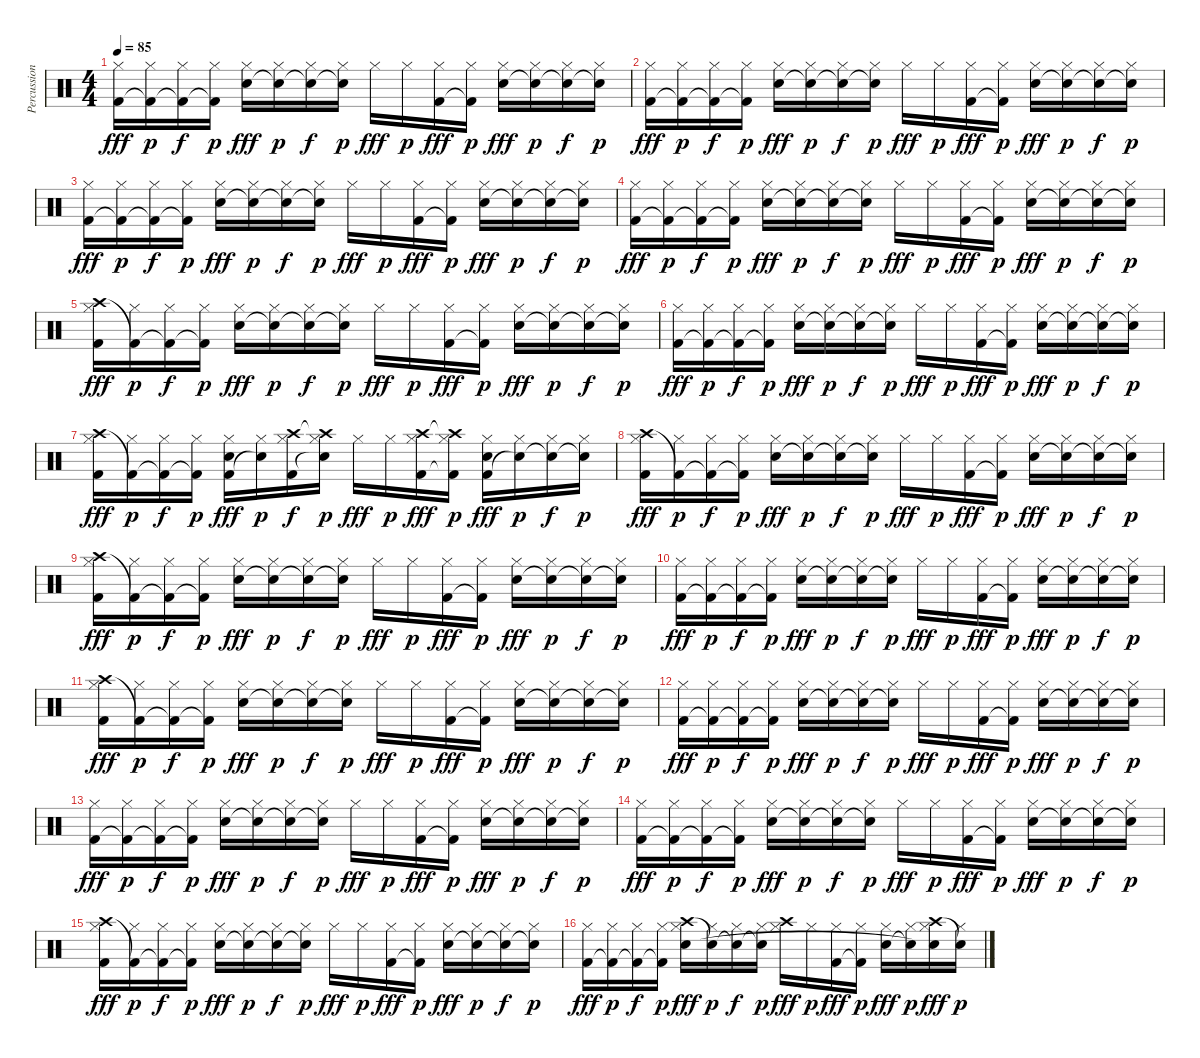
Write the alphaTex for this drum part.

\track ("Percussion" "Percussion") {instrument percussion}
\staff {score}
\articulation defaults
\ts (4 4)
\tempo 85
\clef neutral
\ks c
("Hi-Hat (closed)" "Kick (hit) 2").16{dy fff} ("Hi-Hat (closed)" "Kick (hit) 2"{t}).16{dy p} ("Hi-Hat (closed)" "Kick (hit) 2"{t}).16{dy f} ("Hi-Hat (closed)" "Kick (hit) 2"{t}).16{dy p} ("Hi-Hat (closed)" "Snare (hit) 2").16{dy fff} ("Hi-Hat (closed)" "Snare (hit) 2"{t}).16{dy p} ("Hi-Hat (closed)" "Snare (hit) 2"{t}).16{dy f} ("Hi-Hat (closed)" "Snare (hit) 2"{t}).16{dy p} "Hi-Hat (closed)".16{dy fff} "Hi-Hat (closed)".16{dy p} ("Hi-Hat (closed)" "Kick (hit) 2").16{dy fff} ("Hi-Hat (closed)" "Kick (hit) 2"{t}).16{dy p} ("Hi-Hat (closed)" "Snare (hit) 2").16{dy fff} ("Hi-Hat (closed)" "Snare (hit) 2"{t}).16{dy p} ("Hi-Hat (closed)" "Snare (hit) 2"{t}).16{dy f} ("Hi-Hat (closed)" "Snare (hit) 2"{t}).16{dy p} |
("Hi-Hat (closed)" "Kick (hit) 2").16{dy fff} ("Hi-Hat (closed)" "Kick (hit) 2"{t}).16{dy p} ("Hi-Hat (closed)" "Kick (hit) 2"{t}).16{dy f} ("Hi-Hat (closed)" "Kick (hit) 2"{t}).16{dy p} ("Hi-Hat (closed)" "Snare (hit) 2").16{dy fff} ("Hi-Hat (closed)" "Snare (hit) 2"{t}).16{dy p} ("Hi-Hat (closed)" "Snare (hit) 2"{t}).16{dy f} ("Hi-Hat (closed)" "Snare (hit) 2"{t}).16{dy p} "Hi-Hat (closed)".16{dy fff} "Hi-Hat (closed)".16{dy p} ("Hi-Hat (closed)" "Kick (hit) 2").16{dy fff} ("Hi-Hat (closed)" "Kick (hit) 2"{t}).16{dy p} ("Hi-Hat (closed)" "Snare (hit) 2").16{dy fff} ("Hi-Hat (closed)" "Snare (hit) 2"{t}).16{dy p} ("Hi-Hat (closed)" "Snare (hit) 2"{t}).16{dy f} ("Hi-Hat (closed)" "Snare (hit) 2"{t}).16{dy p} |
("Hi-Hat (closed)" "Kick (hit) 2").16{dy fff} ("Hi-Hat (closed)" "Kick (hit) 2"{t}).16{dy p} ("Hi-Hat (closed)" "Kick (hit) 2"{t}).16{dy f} ("Hi-Hat (closed)" "Kick (hit) 2"{t}).16{dy p} ("Hi-Hat (closed)" "Snare (hit) 2").16{dy fff} ("Hi-Hat (closed)" "Snare (hit) 2"{t}).16{dy p} ("Hi-Hat (closed)" "Snare (hit) 2"{t}).16{dy f} ("Hi-Hat (closed)" "Snare (hit) 2"{t}).16{dy p} "Hi-Hat (closed)".16{dy fff} "Hi-Hat (closed)".16{dy p} ("Hi-Hat (closed)" "Kick (hit) 2").16{dy fff} ("Hi-Hat (closed)" "Kick (hit) 2"{t}).16{dy p} ("Hi-Hat (closed)" "Snare (hit) 2").16{dy fff} ("Hi-Hat (closed)" "Snare (hit) 2"{t}).16{dy p} ("Hi-Hat (closed)" "Snare (hit) 2"{t}).16{dy f} ("Hi-Hat (closed)" "Snare (hit) 2"{t}).16{dy p} |
("Hi-Hat (closed)" "Kick (hit) 2").16{dy fff} ("Hi-Hat (closed)" "Kick (hit) 2"{t}).16{dy p} ("Hi-Hat (closed)" "Kick (hit) 2"{t}).16{dy f} ("Hi-Hat (closed)" "Kick (hit) 2"{t}).16{dy p} ("Hi-Hat (closed)" "Snare (hit) 2").16{dy fff} ("Hi-Hat (closed)" "Snare (hit) 2"{t}).16{dy p} ("Hi-Hat (closed)" "Snare (hit) 2"{t}).16{dy f} ("Hi-Hat (closed)" "Snare (hit) 2"{t}).16{dy p} "Hi-Hat (closed)".16{dy fff} "Hi-Hat (closed)".16{dy p} ("Hi-Hat (closed)" "Kick (hit) 2").16{dy fff} ("Hi-Hat (closed)" "Kick (hit) 2"{t}).16{dy p} ("Hi-Hat (closed)" "Snare (hit) 2").16{dy fff} ("Hi-Hat (closed)" "Snare (hit) 2"{t}).16{dy p} ("Hi-Hat (closed)" "Snare (hit) 2"{t}).16{dy f} ("Hi-Hat (closed)" "Snare (hit) 2"{t}).16{dy p} |
("Hi-Hat (closed)" "Crash high (hit)" "Kick (hit) 2").16{dy fff} ("Hi-Hat (closed)" "Kick (hit) 2"{t}).16{dy p} ("Hi-Hat (closed)" "Kick (hit) 2"{t}).16{dy f} ("Hi-Hat (closed)" "Kick (hit) 2"{t}).16{dy p} ("Hi-Hat (closed)" "Snare (hit) 2").16{dy fff} ("Hi-Hat (closed)" "Snare (hit) 2"{t}).16{dy p} ("Hi-Hat (closed)" "Snare (hit) 2"{t}).16{dy f} ("Hi-Hat (closed)" "Snare (hit) 2"{t}).16{dy p} "Hi-Hat (closed)".16{dy fff} "Hi-Hat (closed)".16{dy p} ("Hi-Hat (closed)" "Kick (hit) 2").16{dy fff} ("Hi-Hat (closed)" "Kick (hit) 2"{t}).16{dy p} ("Hi-Hat (closed)" "Snare (hit) 2").16{dy fff} ("Hi-Hat (closed)" "Snare (hit) 2"{t}).16{dy p} ("Hi-Hat (closed)" "Snare (hit) 2"{t}).16{dy f} ("Hi-Hat (closed)" "Snare (hit) 2"{t}).16{dy p} |
("Hi-Hat (closed)" "Kick (hit) 2").16{dy fff} ("Hi-Hat (closed)" "Kick (hit) 2"{t}).16{dy p} ("Hi-Hat (closed)" "Kick (hit) 2"{t}).16{dy f} ("Hi-Hat (closed)" "Kick (hit) 2"{t}).16{dy p} ("Hi-Hat (closed)" "Snare (hit) 2").16{dy fff} ("Hi-Hat (closed)" "Snare (hit) 2"{t}).16{dy p} ("Hi-Hat (closed)" "Snare (hit) 2"{t}).16{dy f} ("Hi-Hat (closed)" "Snare (hit) 2"{t}).16{dy p} "Hi-Hat (closed)".16{dy fff} "Hi-Hat (closed)".16{dy p} ("Hi-Hat (closed)" "Kick (hit) 2").16{dy fff} ("Hi-Hat (closed)" "Kick (hit) 2"{t}).16{dy p} ("Hi-Hat (closed)" "Snare (hit) 2").16{dy fff} ("Hi-Hat (closed)" "Snare (hit) 2"{t}).16{dy p} ("Hi-Hat (closed)" "Snare (hit) 2"{t}).16{dy f} ("Hi-Hat (closed)" "Snare (hit) 2"{t}).16{dy p} |
("Hi-Hat (closed)" "Crash high (hit)" "Kick (hit) 2").16{dy fff} ("Hi-Hat (closed)" "Kick (hit) 2"{t}).16{dy p} ("Hi-Hat (closed)" "Kick (hit) 2"{t}).16{dy f} ("Hi-Hat (closed)" "Kick (hit) 2"{t}).16{dy p} ("Hi-Hat (closed)" "Kick (hit) 2" "Snare (hit) 2").16{dy fff} ("Hi-Hat (closed)" "Snare (hit) 2"{t}).16{dy p} ("Hi-Hat (closed)" "Crash high (hit)" "Kick (hit) 2").16{dy f} ("Hi-Hat (closed)" "Crash high (hit)"{t} "Snare (hit) 2"{t}).16{dy p} "Hi-Hat (closed)".16{dy fff} "Hi-Hat (closed)".16{dy p} ("Hi-Hat (closed)" "Crash high (hit)" "Kick (hit) 2").16{dy fff} ("Hi-Hat (closed)" "Crash high (hit)"{t} "Kick (hit) 2"{t}).16{dy p} ("Hi-Hat (closed)" "Kick (hit) 2" "Snare (hit) 2").16{dy fff} ("Hi-Hat (closed)" "Snare (hit) 2"{t}).16{dy p} ("Hi-Hat (closed)" "Snare (hit) 2"{t}).16{dy f} ("Hi-Hat (closed)" "Snare (hit) 2"{t}).16{dy p} |
("Hi-Hat (closed)" "Crash high (hit)" "Kick (hit) 2").16{dy fff} ("Hi-Hat (closed)" "Kick (hit) 2"{t}).16{dy p} ("Hi-Hat (closed)" "Kick (hit) 2"{t}).16{dy f} ("Hi-Hat (closed)" "Kick (hit) 2"{t}).16{dy p} ("Hi-Hat (closed)" "Snare (hit) 2").16{dy fff} ("Hi-Hat (closed)" "Snare (hit) 2"{t}).16{dy p} ("Hi-Hat (closed)" "Snare (hit) 2"{t}).16{dy f} ("Hi-Hat (closed)" "Snare (hit) 2"{t}).16{dy p} "Hi-Hat (closed)".16{dy fff} "Hi-Hat (closed)".16{dy p} ("Hi-Hat (closed)" "Kick (hit) 2").16{dy fff} ("Hi-Hat (closed)" "Kick (hit) 2"{t}).16{dy p} ("Hi-Hat (closed)" "Snare (hit) 2").16{dy fff} ("Hi-Hat (closed)" "Snare (hit) 2"{t}).16{dy p} ("Hi-Hat (closed)" "Snare (hit) 2"{t}).16{dy f} ("Hi-Hat (closed)" "Snare (hit) 2"{t}).16{dy p} |
("Hi-Hat (closed)" "Crash high (hit)" "Kick (hit) 2").16{dy fff} ("Hi-Hat (closed)" "Kick (hit) 2"{t}).16{dy p} ("Hi-Hat (closed)" "Kick (hit) 2"{t}).16{dy f} ("Hi-Hat (closed)" "Kick (hit) 2"{t}).16{dy p} ("Hi-Hat (closed)" "Snare (hit) 2").16{dy fff} ("Hi-Hat (closed)" "Snare (hit) 2"{t}).16{dy p} ("Hi-Hat (closed)" "Snare (hit) 2"{t}).16{dy f} ("Hi-Hat (closed)" "Snare (hit) 2"{t}).16{dy p} "Hi-Hat (closed)".16{dy fff} "Hi-Hat (closed)".16{dy p} ("Hi-Hat (closed)" "Kick (hit) 2").16{dy fff} ("Hi-Hat (closed)" "Kick (hit) 2"{t}).16{dy p} ("Hi-Hat (closed)" "Snare (hit) 2").16{dy fff} ("Hi-Hat (closed)" "Snare (hit) 2"{t}).16{dy p} ("Hi-Hat (closed)" "Snare (hit) 2"{t}).16{dy f} ("Hi-Hat (closed)" "Snare (hit) 2"{t}).16{dy p} |
("Hi-Hat (closed)" "Kick (hit) 2").16{dy fff} ("Hi-Hat (closed)" "Kick (hit) 2"{t}).16{dy p} ("Hi-Hat (closed)" "Kick (hit) 2"{t}).16{dy f} ("Hi-Hat (closed)" "Kick (hit) 2"{t}).16{dy p} ("Hi-Hat (closed)" "Snare (hit) 2").16{dy fff} ("Hi-Hat (closed)" "Snare (hit) 2"{t}).16{dy p} ("Hi-Hat (closed)" "Snare (hit) 2"{t}).16{dy f} ("Hi-Hat (closed)" "Snare (hit) 2"{t}).16{dy p} "Hi-Hat (closed)".16{dy fff} "Hi-Hat (closed)".16{dy p} ("Hi-Hat (closed)" "Kick (hit) 2").16{dy fff} ("Hi-Hat (closed)" "Kick (hit) 2"{t}).16{dy p} ("Hi-Hat (closed)" "Snare (hit) 2").16{dy fff} ("Hi-Hat (closed)" "Snare (hit) 2"{t}).16{dy p} ("Hi-Hat (closed)" "Snare (hit) 2"{t}).16{dy f} ("Hi-Hat (closed)" "Snare (hit) 2"{t}).16{dy p} |
("Hi-Hat (closed)" "Crash high (hit)" "Kick (hit) 2").16{dy fff} ("Hi-Hat (closed)" "Kick (hit) 2"{t}).16{dy p} ("Hi-Hat (closed)" "Kick (hit) 2"{t}).16{dy f} ("Hi-Hat (closed)" "Kick (hit) 2"{t}).16{dy p} ("Hi-Hat (closed)" "Snare (hit) 2").16{dy fff} ("Hi-Hat (closed)" "Snare (hit) 2"{t}).16{dy p} ("Hi-Hat (closed)" "Snare (hit) 2"{t}).16{dy f} ("Hi-Hat (closed)" "Snare (hit) 2"{t}).16{dy p} "Hi-Hat (closed)".16{dy fff} "Hi-Hat (closed)".16{dy p} ("Hi-Hat (closed)" "Kick (hit) 2").16{dy fff} ("Hi-Hat (closed)" "Kick (hit) 2"{t}).16{dy p} ("Hi-Hat (closed)" "Snare (hit) 2").16{dy fff} ("Hi-Hat (closed)" "Snare (hit) 2"{t}).16{dy p} ("Hi-Hat (closed)" "Snare (hit) 2"{t}).16{dy f} ("Hi-Hat (closed)" "Snare (hit) 2"{t}).16{dy p} |
("Hi-Hat (closed)" "Kick (hit) 2").16{dy fff} ("Hi-Hat (closed)" "Kick (hit) 2"{t}).16{dy p} ("Hi-Hat (closed)" "Kick (hit) 2"{t}).16{dy f} ("Hi-Hat (closed)" "Kick (hit) 2"{t}).16{dy p} ("Hi-Hat (closed)" "Snare (hit) 2").16{dy fff} ("Hi-Hat (closed)" "Snare (hit) 2"{t}).16{dy p} ("Hi-Hat (closed)" "Snare (hit) 2"{t}).16{dy f} ("Hi-Hat (closed)" "Snare (hit) 2"{t}).16{dy p} "Hi-Hat (closed)".16{dy fff} "Hi-Hat (closed)".16{dy p} ("Hi-Hat (closed)" "Kick (hit) 2").16{dy fff} ("Hi-Hat (closed)" "Kick (hit) 2"{t}).16{dy p} ("Hi-Hat (closed)" "Snare (hit) 2").16{dy fff} ("Hi-Hat (closed)" "Snare (hit) 2"{t}).16{dy p} ("Hi-Hat (closed)" "Snare (hit) 2"{t}).16{dy f} ("Hi-Hat (closed)" "Snare (hit) 2"{t}).16{dy p} |
("Hi-Hat (closed)" "Kick (hit) 2").16{dy fff} ("Hi-Hat (closed)" "Kick (hit) 2"{t}).16{dy p} ("Hi-Hat (closed)" "Kick (hit) 2"{t}).16{dy f} ("Hi-Hat (closed)" "Kick (hit) 2"{t}).16{dy p} ("Hi-Hat (closed)" "Snare (hit) 2").16{dy fff} ("Hi-Hat (closed)" "Snare (hit) 2"{t}).16{dy p} ("Hi-Hat (closed)" "Snare (hit) 2"{t}).16{dy f} ("Hi-Hat (closed)" "Snare (hit) 2"{t}).16{dy p} "Hi-Hat (closed)".16{dy fff} "Hi-Hat (closed)".16{dy p} ("Hi-Hat (closed)" "Kick (hit) 2").16{dy fff} ("Hi-Hat (closed)" "Kick (hit) 2"{t}).16{dy p} ("Hi-Hat (closed)" "Snare (hit) 2").16{dy fff} ("Hi-Hat (closed)" "Snare (hit) 2"{t}).16{dy p} ("Hi-Hat (closed)" "Snare (hit) 2"{t}).16{dy f} ("Hi-Hat (closed)" "Snare (hit) 2"{t}).16{dy p} |
("Hi-Hat (closed)" "Kick (hit) 2").16{dy fff} ("Hi-Hat (closed)" "Kick (hit) 2"{t}).16{dy p} ("Hi-Hat (closed)" "Kick (hit) 2"{t}).16{dy f} ("Hi-Hat (closed)" "Kick (hit) 2"{t}).16{dy p} ("Hi-Hat (closed)" "Snare (hit) 2").16{dy fff} ("Hi-Hat (closed)" "Snare (hit) 2"{t}).16{dy p} ("Hi-Hat (closed)" "Snare (hit) 2"{t}).16{dy f} ("Hi-Hat (closed)" "Snare (hit) 2"{t}).16{dy p} "Hi-Hat (closed)".16{dy fff} "Hi-Hat (closed)".16{dy p} ("Hi-Hat (closed)" "Kick (hit) 2").16{dy fff} ("Hi-Hat (closed)" "Kick (hit) 2"{t}).16{dy p} ("Hi-Hat (closed)" "Snare (hit) 2").16{dy fff} ("Hi-Hat (closed)" "Snare (hit) 2"{t}).16{dy p} ("Hi-Hat (closed)" "Snare (hit) 2"{t}).16{dy f} ("Hi-Hat (closed)" "Snare (hit) 2"{t}).16{dy p} |
("Hi-Hat (closed)" "Crash high (hit)" "Kick (hit) 2").16{dy fff} ("Hi-Hat (closed)" "Kick (hit) 2"{t}).16{dy p} ("Hi-Hat (closed)" "Kick (hit) 2"{t}).16{dy f} ("Hi-Hat (closed)" "Kick (hit) 2"{t}).16{dy p} ("Hi-Hat (closed)" "Snare (hit) 2").16{dy fff} ("Hi-Hat (closed)" "Snare (hit) 2"{t}).16{dy p} ("Hi-Hat (closed)" "Snare (hit) 2"{t}).16{dy f} ("Hi-Hat (closed)" "Snare (hit) 2"{t}).16{dy p} "Hi-Hat (closed)".16{dy fff} "Hi-Hat (closed)".16{dy p} ("Hi-Hat (closed)" "Kick (hit) 2").16{dy fff} ("Hi-Hat (closed)" "Kick (hit) 2"{t}).16{dy p} ("Hi-Hat (closed)" "Snare (hit) 2").16{dy fff} ("Hi-Hat (closed)" "Snare (hit) 2"{t}).16{dy p} ("Hi-Hat (closed)" "Snare (hit) 2"{t}).16{dy f} ("Hi-Hat (closed)" "Snare (hit) 2"{t}).16{dy p} |
("Hi-Hat (closed)" "Kick (hit) 2").16{dy fff} ("Hi-Hat (closed)" "Kick (hit) 2"{t}).16{dy p} ("Hi-Hat (closed)" "Kick (hit) 2"{t}).16{dy f} ("Hi-Hat (closed)" "Kick (hit) 2"{t}).16{dy p} ("Hi-Hat (closed)" "Crash high (hit)" "Snare (hit) 2").16{dy fff} ("Hi-Hat (closed)" "Snare (hit) 2"{t}).16{dy p} ("Hi-Hat (closed)" "Snare (hit) 2"{t}).16{dy f} ("Hi-Hat (closed)" "Snare (hit) 2"{t}).16{dy p} ("Hi-Hat (closed)" "Crash high (hit)").16{dy fff} "Hi-Hat (closed)".16{dy p} ("Hi-Hat (closed)" "Kick (hit) 2").16{dy fff} ("Hi-Hat (closed)" "Kick (hit) 2"{t}).16{dy p} ("Hi-Hat (closed)" "Snare (hit) 2").16{dy fff} ("Hi-Hat (closed)" "Snare (hit) 2"{t}).16{dy p} ("Hi-Hat (closed)" "Crash high (hit)" "Snare (hit) 2"{t}).16{dy fff} ("Hi-Hat (closed)" "Snare (hit) 2"{t}).16{dy p}
